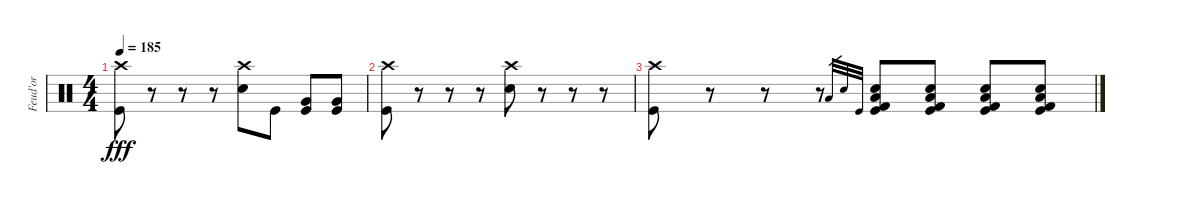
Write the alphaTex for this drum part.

\track ("Feud'or" "Feud'or") {instrument percussion}
\staff {score}
\articulation defaults
\ts (4 4)
\tempo 185
\clef neutral
\ks c
("Crash high (hit)" "Kick (hit)").8{dy fff} r.8 r.8 r.8 ("Crash high (hit)" "Snare (hit) 2").8 "Kick (hit)".8 ("Very Low Tom (hit)" "Kick (hit)").8 ("Very Low Tom (hit)" "Kick (hit)").8 |
("Crash high (hit)" "Kick (hit)").8 r.8 r.8 r.8 ("Crash high (hit)" "Snare (hit) 2").8 r.8 r.8 r.8 |
("Crash high (hit)" "Kick (hit)").8 r.8 r.8 r.8 "Low Floor Tom (hit)".32{gr} "Snare (hit) 2".32{gr} "Kick (hit)".32{gr} ("Low Floor Tom (hit)" "Snare (hit) 2" "Kick (hit)" "Kick (hit) 2").8 ("Low Floor Tom (hit)" "Snare (hit) 2" "Kick (hit)" "Kick (hit) 2").8 ("Low Floor Tom (hit)" "Snare (hit) 2" "Kick (hit)" "Kick (hit) 2").8 ("Low Floor Tom (hit)" "Snare (hit) 2" "Kick (hit)" "Kick (hit) 2").8
